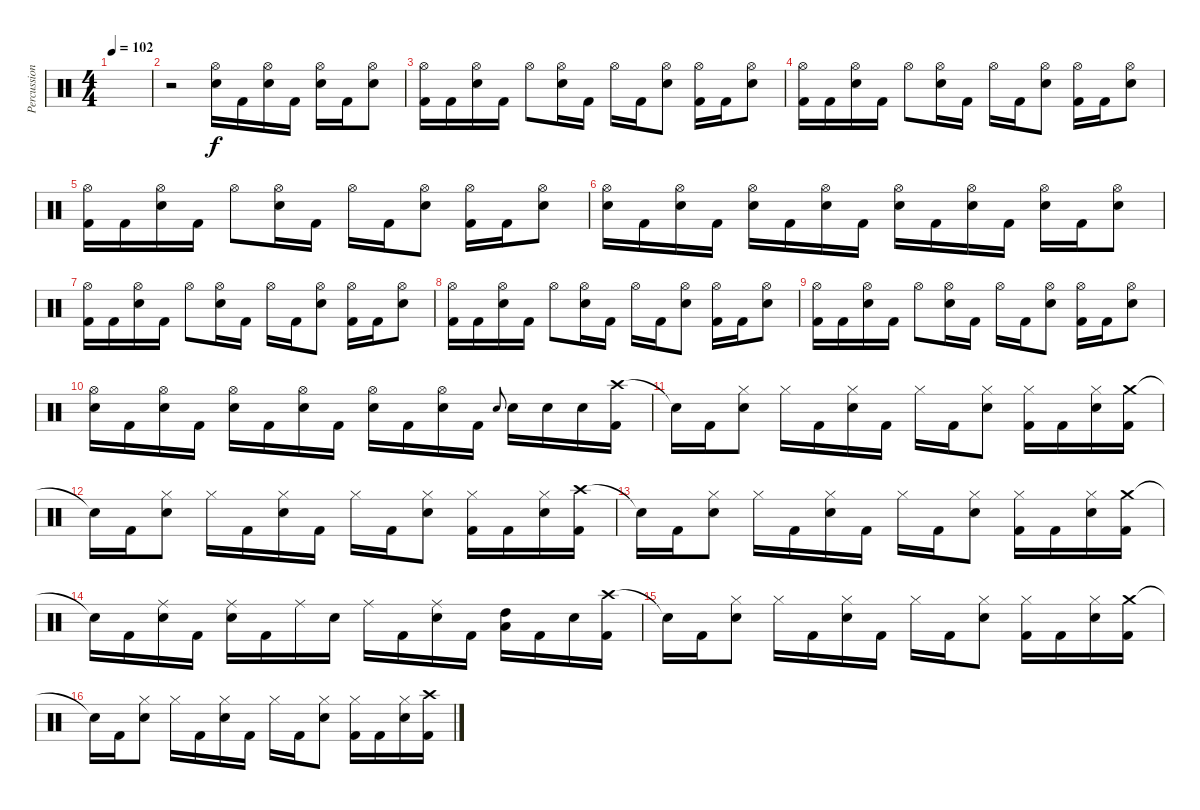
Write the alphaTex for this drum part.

\track ("Percussion" "Percussion") {instrument percussion}
\staff {score}
\articulation defaults
\ts (4 4)
\tempo 102
\clef neutral
\ks c
|
r.2 ("Hi-Hat (open)" "Snare (hit) 2").16 "Kick (hit) 2".16 ("Hi-Hat (open)" "Snare (hit) 2").16 "Kick (hit) 2".16 ("Hi-Hat (open)" "Snare (hit) 2").16 "Kick (hit) 2".16 ("Hi-Hat (open)" "Snare (hit) 2").8 |
("Hi-Hat (open)" "Kick (hit) 2").16 "Kick (hit) 2".16 ("Hi-Hat (open)" "Snare (hit) 2").16 "Kick (hit) 2".16 "Hi-Hat (open)".8 ("Hi-Hat (open)" "Snare (hit) 2").16 "Kick (hit) 2".16 "Hi-Hat (open)".16 "Kick (hit) 2".16 ("Hi-Hat (open)" "Snare (hit) 2").8 ("Hi-Hat (open)" "Kick (hit) 2").16 "Kick (hit) 2".16 ("Hi-Hat (open)" "Snare (hit) 2").8 |
("Hi-Hat (open)" "Kick (hit) 2").16 "Kick (hit) 2".16 ("Hi-Hat (open)" "Snare (hit) 2").16 "Kick (hit) 2".16 "Hi-Hat (open)".8 ("Hi-Hat (open)" "Snare (hit) 2").16 "Kick (hit) 2".16 "Hi-Hat (open)".16 "Kick (hit) 2".16 ("Hi-Hat (open)" "Snare (hit) 2").8 ("Hi-Hat (open)" "Kick (hit) 2").16 "Kick (hit) 2".16 ("Hi-Hat (open)" "Snare (hit) 2").8 |
("Hi-Hat (open)" "Kick (hit) 2").16 "Kick (hit) 2".16 ("Hi-Hat (open)" "Snare (hit) 2").16 "Kick (hit) 2".16 "Hi-Hat (open)".8 ("Hi-Hat (open)" "Snare (hit) 2").16 "Kick (hit) 2".16 "Hi-Hat (open)".16 "Kick (hit) 2".16 ("Hi-Hat (open)" "Snare (hit) 2").8 ("Hi-Hat (open)" "Kick (hit) 2").16 "Kick (hit) 2".16 ("Hi-Hat (open)" "Snare (hit) 2").8 |
("Hi-Hat (open)" "Snare (hit) 2").16 "Kick (hit) 2".16 ("Hi-Hat (open)" "Snare (hit) 2").16 "Kick (hit) 2".16 ("Hi-Hat (open)" "Snare (hit) 2").16 "Kick (hit) 2".16 ("Hi-Hat (open)" "Snare (hit) 2").16 "Kick (hit) 2".16 ("Hi-Hat (open)" "Snare (hit) 2").16 "Kick (hit) 2".16 ("Hi-Hat (open)" "Snare (hit) 2").16 "Kick (hit) 2".16 ("Hi-Hat (open)" "Snare (hit) 2").16 "Kick (hit) 2".16 ("Hi-Hat (open)" "Snare (hit) 2").8 |
("Hi-Hat (open)" "Kick (hit) 2").16 "Kick (hit) 2".16 ("Hi-Hat (open)" "Snare (hit) 2").16 "Kick (hit) 2".16 "Hi-Hat (open)".8 ("Hi-Hat (open)" "Snare (hit) 2").16 "Kick (hit) 2".16 "Hi-Hat (open)".16 "Kick (hit) 2".16 ("Hi-Hat (open)" "Snare (hit) 2").8 ("Hi-Hat (open)" "Kick (hit) 2").16 "Kick (hit) 2".16 ("Hi-Hat (open)" "Snare (hit) 2").8 |
("Hi-Hat (open)" "Kick (hit) 2").16 "Kick (hit) 2".16 ("Hi-Hat (open)" "Snare (hit) 2").16 "Kick (hit) 2".16 "Hi-Hat (open)".8 ("Hi-Hat (open)" "Snare (hit) 2").16 "Kick (hit) 2".16 "Hi-Hat (open)".16 "Kick (hit) 2".16 ("Hi-Hat (open)" "Snare (hit) 2").8 ("Hi-Hat (open)" "Kick (hit) 2").16 "Kick (hit) 2".16 ("Hi-Hat (open)" "Snare (hit) 2").8 |
("Hi-Hat (open)" "Kick (hit) 2").16 "Kick (hit) 2".16 ("Hi-Hat (open)" "Snare (hit) 2").16 "Kick (hit) 2".16 "Hi-Hat (open)".8 ("Hi-Hat (open)" "Snare (hit) 2").16 "Kick (hit) 2".16 "Hi-Hat (open)".16 "Kick (hit) 2".16 ("Hi-Hat (open)" "Snare (hit) 2").8 ("Hi-Hat (open)" "Kick (hit) 2").16 "Kick (hit) 2".16 ("Hi-Hat (open)" "Snare (hit) 2").8 |
("Hi-Hat (open)" "Snare (hit) 2").16 "Kick (hit) 2".16 ("Hi-Hat (open)" "Snare (hit) 2").16 "Kick (hit) 2".16 ("Hi-Hat (open)" "Snare (hit) 2").16 "Kick (hit) 2".16 ("Hi-Hat (open)" "Snare (hit) 2").16 "Kick (hit) 2".16 ("Hi-Hat (open)" "Snare (hit) 2").16 "Kick (hit) 2".16 ("Hi-Hat (open)" "Snare (hit) 2").16 "Kick (hit) 2".16 "Snare (hit) 2".8{gr onbeat} "Snare (hit) 2".16 "Snare (hit) 2".16 "Snare (hit) 2".16 ("Crash high (hit)" "Kick (hit) 2").16 |
"Snare (hit)"{t}.16 "Kick (hit) 2".16 ("Hi-Hat (closed)" "Snare (hit) 2").8 "Hi-Hat (closed)".16 "Kick (hit) 2".16 ("Hi-Hat (closed)" "Snare (hit) 2").16 "Kick (hit) 2".16 "Hi-Hat (closed)".16 "Kick (hit) 2".16 ("Hi-Hat (closed)" "Snare (hit) 2").8 ("Hi-Hat (closed)" "Kick (hit) 2").16 "Kick (hit) 2".16 ("Hi-Hat (closed)" "Snare (hit) 2").16 ("Crash medium (hit)" "Kick (hit) 2").16 |
"Snare (hit)"{t}.16 "Kick (hit) 2".16 ("Hi-Hat (closed)" "Snare (hit) 2").8 "Hi-Hat (closed)".16 "Kick (hit) 2".16 ("Hi-Hat (closed)" "Snare (hit) 2").16 "Kick (hit) 2".16 "Hi-Hat (closed)".16 "Kick (hit) 2".16 ("Hi-Hat (closed)" "Snare (hit) 2").8 ("Hi-Hat (closed)" "Kick (hit) 2").16 "Kick (hit) 2".16 ("Hi-Hat (closed)" "Snare (hit) 2").16 ("Crash high (hit)" "Kick (hit) 2").16 |
"Snare (hit)"{t}.16 "Kick (hit) 2".16 ("Hi-Hat (closed)" "Snare (hit) 2").8 "Hi-Hat (closed)".16 "Kick (hit) 2".16 ("Hi-Hat (closed)" "Snare (hit) 2").16 "Kick (hit) 2".16 "Hi-Hat (closed)".16 "Kick (hit) 2".16 ("Hi-Hat (closed)" "Snare (hit) 2").8 ("Hi-Hat (closed)" "Kick (hit) 2").16 "Kick (hit) 2".16 ("Hi-Hat (closed)" "Snare (hit) 2").16 ("Crash medium (hit)" "Kick (hit) 2").16 |
"Snare (hit)"{t}.16 "Kick (hit) 2".16 ("Ride (middle)" "Snare (hit) 2").16 "Kick (hit) 2".16 ("Ride (middle)" "Snare (hit) 2").16 "Kick (hit) 2".16 "Ride (middle)".16 "Snare (hit) 2".16 "Ride (middle)".16 "Kick (hit) 2".16 ("Ride (middle)" "Snare (hit) 2").16 "Kick (hit) 2".16 ("High Tom (hit)" "Low Tom (hit)").16 "Kick (hit) 2".16 "Snare (hit) 2".16 ("Crash high (hit)" "Kick (hit) 2").16 |
"Snare (hit)"{t}.16 "Kick (hit) 2".16 ("Hi-Hat (closed)" "Snare (hit) 2").8 "Hi-Hat (closed)".16 "Kick (hit) 2".16 ("Hi-Hat (closed)" "Snare (hit) 2").16 "Kick (hit) 2".16 "Hi-Hat (closed)".16 "Kick (hit) 2".16 ("Hi-Hat (closed)" "Snare (hit) 2").8 ("Hi-Hat (closed)" "Kick (hit) 2").16 "Kick (hit) 2".16 ("Hi-Hat (closed)" "Snare (hit) 2").16 ("Crash medium (hit)" "Kick (hit) 2").16 |
"Snare (hit)"{t}.16 "Kick (hit) 2".16 ("Hi-Hat (closed)" "Snare (hit) 2").8 "Hi-Hat (closed)".16 "Kick (hit) 2".16 ("Hi-Hat (closed)" "Snare (hit) 2").16 "Kick (hit) 2".16 "Hi-Hat (closed)".16 "Kick (hit) 2".16 ("Hi-Hat (closed)" "Snare (hit) 2").8 ("Hi-Hat (closed)" "Kick (hit) 2").16 "Kick (hit) 2".16 ("Hi-Hat (closed)" "Snare (hit) 2").16 ("Crash high (hit)" "Kick (hit) 2").16
